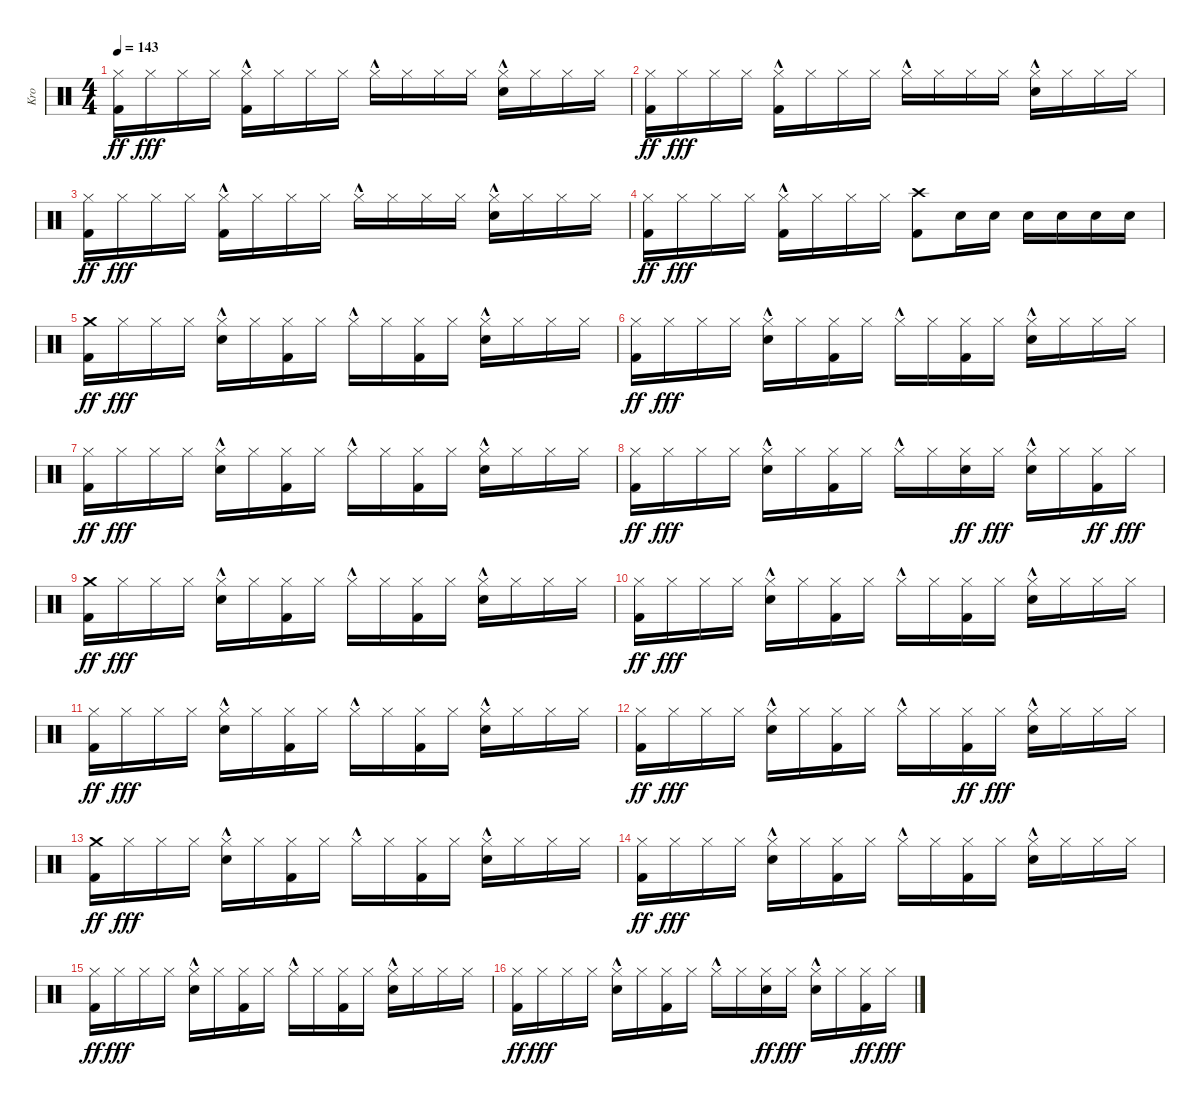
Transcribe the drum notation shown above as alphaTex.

\track ("Kro" "Kro") {instrument percussion}
\staff {score}
\articulation defaults
\ts (4 4)
\tempo 143
\clef neutral
\ks c
("Hi-Hat (closed)" "Kick (hit) 2").16{dy ff} "Hi-Hat (closed)".16{dy fff} "Hi-Hat (closed)".16 "Hi-Hat (closed)".16 ("Hi-Hat (closed)"{hac} "Kick (hit) 2").16 "Hi-Hat (closed)".16 "Hi-Hat (closed)".16 "Hi-Hat (closed)".16 "Hi-Hat (closed)"{hac}.16 "Hi-Hat (closed)".16 "Hi-Hat (closed)".16 "Hi-Hat (closed)".16 ("Hi-Hat (closed)"{hac} "Electric Snare (hit)").16 "Hi-Hat (closed)".16 "Hi-Hat (closed)".16 "Hi-Hat (closed)".16 |
("Hi-Hat (closed)" "Kick (hit) 2").16{dy ff} "Hi-Hat (closed)".16{dy fff} "Hi-Hat (closed)".16 "Hi-Hat (closed)".16 ("Hi-Hat (closed)"{hac} "Kick (hit) 2").16 "Hi-Hat (closed)".16 "Hi-Hat (closed)".16 "Hi-Hat (closed)".16 "Hi-Hat (closed)"{hac}.16 "Hi-Hat (closed)".16 "Hi-Hat (closed)".16 "Hi-Hat (closed)".16 ("Hi-Hat (closed)"{hac} "Electric Snare (hit)").16 "Hi-Hat (closed)".16 "Hi-Hat (closed)".16 "Hi-Hat (closed)".16 |
("Hi-Hat (closed)" "Kick (hit) 2").16{dy ff} "Hi-Hat (closed)".16{dy fff} "Hi-Hat (closed)".16 "Hi-Hat (closed)".16 ("Hi-Hat (closed)"{hac} "Kick (hit) 2").16 "Hi-Hat (closed)".16 "Hi-Hat (closed)".16 "Hi-Hat (closed)".16 "Hi-Hat (closed)"{hac}.16 "Hi-Hat (closed)".16 "Hi-Hat (closed)".16 "Hi-Hat (closed)".16 ("Hi-Hat (closed)"{hac} "Electric Snare (hit)").16 "Hi-Hat (closed)".16 "Hi-Hat (closed)".16 "Hi-Hat (closed)".16 |
("Hi-Hat (closed)" "Kick (hit) 2").16{dy ff} "Hi-Hat (closed)".16{dy fff} "Hi-Hat (closed)".16 "Hi-Hat (closed)".16 ("Hi-Hat (closed)"{hac} "Kick (hit) 2").16 "Hi-Hat (closed)".16 "Hi-Hat (closed)".16 "Hi-Hat (closed)".16 ("Crash high (hit)" "Kick (hit) 2").8 "Electric Snare (hit)".16 "Electric Snare (hit)".16 "Electric Snare (hit)".16 "Electric Snare (hit)".16 "Electric Snare (hit)".16 "Electric Snare (hit)".16 |
("Crash medium (hit)" "Kick (hit) 2").16{dy ff} "Hi-Hat (closed)".16{dy fff} "Hi-Hat (closed)".16 "Hi-Hat (closed)".16 ("Hi-Hat (closed)"{hac} "Electric Snare (hit)").16 "Hi-Hat (closed)".16 ("Hi-Hat (closed)" "Kick (hit) 2").16 "Hi-Hat (closed)".16 "Hi-Hat (closed)"{hac}.16 "Hi-Hat (closed)".16 ("Hi-Hat (closed)" "Kick (hit) 2").16 "Hi-Hat (closed)".16 ("Hi-Hat (closed)"{hac} "Electric Snare (hit)").16 "Hi-Hat (closed)".16 "Hi-Hat (closed)".16 "Hi-Hat (closed)".16 |
("Hi-Hat (closed)" "Kick (hit) 2").16{dy ff} "Hi-Hat (closed)".16{dy fff} "Hi-Hat (closed)".16 "Hi-Hat (closed)".16 ("Hi-Hat (closed)"{hac} "Electric Snare (hit)").16 "Hi-Hat (closed)".16 ("Hi-Hat (closed)" "Kick (hit) 2").16 "Hi-Hat (closed)".16 "Hi-Hat (closed)"{hac}.16 "Hi-Hat (closed)".16 ("Hi-Hat (closed)" "Kick (hit) 2").16 "Hi-Hat (closed)".16 ("Hi-Hat (closed)"{hac} "Electric Snare (hit)").16 "Hi-Hat (closed)".16 "Hi-Hat (closed)".16 "Hi-Hat (closed)".16 |
("Hi-Hat (closed)" "Kick (hit) 2").16{dy ff} "Hi-Hat (closed)".16{dy fff} "Hi-Hat (closed)".16 "Hi-Hat (closed)".16 ("Hi-Hat (closed)"{hac} "Electric Snare (hit)").16 "Hi-Hat (closed)".16 ("Hi-Hat (closed)" "Kick (hit) 2").16 "Hi-Hat (closed)".16 "Hi-Hat (closed)"{hac}.16 "Hi-Hat (closed)".16 ("Hi-Hat (closed)" "Kick (hit) 2").16 "Hi-Hat (closed)".16 ("Hi-Hat (closed)"{hac} "Electric Snare (hit)").16 "Hi-Hat (closed)".16 "Hi-Hat (closed)".16 "Hi-Hat (closed)".16 |
("Hi-Hat (closed)" "Kick (hit) 2").16{dy ff} "Hi-Hat (closed)".16{dy fff} "Hi-Hat (closed)".16 "Hi-Hat (closed)".16 ("Hi-Hat (closed)"{hac} "Electric Snare (hit)").16 "Hi-Hat (closed)".16 ("Hi-Hat (closed)" "Kick (hit) 2").16 "Hi-Hat (closed)".16 "Hi-Hat (closed)"{hac}.16 "Hi-Hat (closed)".16 ("Hi-Hat (closed)" "Electric Snare (hit)").16{dy ff} "Hi-Hat (closed)".16{dy fff} ("Hi-Hat (closed)"{hac} "Electric Snare (hit)").16 "Hi-Hat (closed)".16 ("Hi-Hat (closed)" "Kick (hit) 2").16{dy ff} "Hi-Hat (closed)".16{dy fff} |
("Crash medium (hit)" "Kick (hit) 2").16{dy ff} "Hi-Hat (closed)".16{dy fff} "Hi-Hat (closed)".16 "Hi-Hat (closed)".16 ("Hi-Hat (closed)"{hac} "Electric Snare (hit)").16 "Hi-Hat (closed)".16 ("Hi-Hat (closed)" "Kick (hit) 2").16 "Hi-Hat (closed)".16 "Hi-Hat (closed)"{hac}.16 "Hi-Hat (closed)".16 ("Hi-Hat (closed)" "Kick (hit) 2").16 "Hi-Hat (closed)".16 ("Hi-Hat (closed)"{hac} "Electric Snare (hit)").16 "Hi-Hat (closed)".16 "Hi-Hat (closed)".16 "Hi-Hat (closed)".16 |
("Hi-Hat (closed)" "Kick (hit) 2").16{dy ff} "Hi-Hat (closed)".16{dy fff} "Hi-Hat (closed)".16 "Hi-Hat (closed)".16 ("Hi-Hat (closed)"{hac} "Electric Snare (hit)").16 "Hi-Hat (closed)".16 ("Hi-Hat (closed)" "Kick (hit) 2").16 "Hi-Hat (closed)".16 "Hi-Hat (closed)"{hac}.16 "Hi-Hat (closed)".16 ("Hi-Hat (closed)" "Kick (hit) 2").16 "Hi-Hat (closed)".16 ("Hi-Hat (closed)"{hac} "Electric Snare (hit)").16 "Hi-Hat (closed)".16 "Hi-Hat (closed)".16 "Hi-Hat (closed)".16 |
("Hi-Hat (closed)" "Kick (hit) 2").16{dy ff} "Hi-Hat (closed)".16{dy fff} "Hi-Hat (closed)".16 "Hi-Hat (closed)".16 ("Hi-Hat (closed)"{hac} "Electric Snare (hit)").16 "Hi-Hat (closed)".16 ("Hi-Hat (closed)" "Kick (hit) 2").16 "Hi-Hat (closed)".16 "Hi-Hat (closed)"{hac}.16 "Hi-Hat (closed)".16 ("Hi-Hat (closed)" "Kick (hit) 2").16 "Hi-Hat (closed)".16 ("Hi-Hat (closed)"{hac} "Electric Snare (hit)").16 "Hi-Hat (closed)".16 "Hi-Hat (closed)".16 "Hi-Hat (closed)".16 |
("Hi-Hat (closed)" "Kick (hit) 2").16{dy ff} "Hi-Hat (closed)".16{dy fff} "Hi-Hat (closed)".16 "Hi-Hat (closed)".16 ("Hi-Hat (closed)"{hac} "Electric Snare (hit)").16 "Hi-Hat (closed)".16 ("Hi-Hat (closed)" "Kick (hit) 2").16 "Hi-Hat (closed)".16 "Hi-Hat (closed)"{hac}.16 "Hi-Hat (closed)".16 ("Hi-Hat (closed)" "Kick (hit) 2").16{dy ff} "Hi-Hat (closed)".16{dy fff} ("Hi-Hat (closed)"{hac} "Electric Snare (hit)").16 "Hi-Hat (closed)".16 "Hi-Hat (closed)".16 "Hi-Hat (closed)".16 |
("Crash medium (hit)" "Kick (hit) 2").16{dy ff} "Hi-Hat (closed)".16{dy fff} "Hi-Hat (closed)".16 "Hi-Hat (closed)".16 ("Hi-Hat (closed)"{hac} "Electric Snare (hit)").16 "Hi-Hat (closed)".16 ("Hi-Hat (closed)" "Kick (hit) 2").16 "Hi-Hat (closed)".16 "Hi-Hat (closed)"{hac}.16 "Hi-Hat (closed)".16 ("Hi-Hat (closed)" "Kick (hit) 2").16 "Hi-Hat (closed)".16 ("Hi-Hat (closed)"{hac} "Electric Snare (hit)").16 "Hi-Hat (closed)".16 "Hi-Hat (closed)".16 "Hi-Hat (closed)".16 |
("Hi-Hat (closed)" "Kick (hit) 2").16{dy ff} "Hi-Hat (closed)".16{dy fff} "Hi-Hat (closed)".16 "Hi-Hat (closed)".16 ("Hi-Hat (closed)"{hac} "Electric Snare (hit)").16 "Hi-Hat (closed)".16 ("Hi-Hat (closed)" "Kick (hit) 2").16 "Hi-Hat (closed)".16 "Hi-Hat (closed)"{hac}.16 "Hi-Hat (closed)".16 ("Hi-Hat (closed)" "Kick (hit) 2").16 "Hi-Hat (closed)".16 ("Hi-Hat (closed)"{hac} "Electric Snare (hit)").16 "Hi-Hat (closed)".16 "Hi-Hat (closed)".16 "Hi-Hat (closed)".16 |
("Hi-Hat (closed)" "Kick (hit) 2").16{dy ff} "Hi-Hat (closed)".16{dy fff} "Hi-Hat (closed)".16 "Hi-Hat (closed)".16 ("Hi-Hat (closed)"{hac} "Electric Snare (hit)").16 "Hi-Hat (closed)".16 ("Hi-Hat (closed)" "Kick (hit) 2").16 "Hi-Hat (closed)".16 "Hi-Hat (closed)"{hac}.16 "Hi-Hat (closed)".16 ("Hi-Hat (closed)" "Kick (hit) 2").16 "Hi-Hat (closed)".16 ("Hi-Hat (closed)"{hac} "Electric Snare (hit)").16 "Hi-Hat (closed)".16 "Hi-Hat (closed)".16 "Hi-Hat (closed)".16 |
("Hi-Hat (closed)" "Kick (hit) 2").16{dy ff} "Hi-Hat (closed)".16{dy fff} "Hi-Hat (closed)".16 "Hi-Hat (closed)".16 ("Hi-Hat (closed)"{hac} "Electric Snare (hit)").16 "Hi-Hat (closed)".16 ("Hi-Hat (closed)" "Kick (hit) 2").16 "Hi-Hat (closed)".16 "Hi-Hat (closed)"{hac}.16 "Hi-Hat (closed)".16 ("Hi-Hat (closed)" "Electric Snare (hit)").16{dy ff} "Hi-Hat (closed)".16{dy fff} ("Hi-Hat (closed)"{hac} "Electric Snare (hit)").16 "Hi-Hat (closed)".16 ("Hi-Hat (closed)" "Kick (hit) 2").16{dy ff} "Hi-Hat (closed)".16{dy fff}
